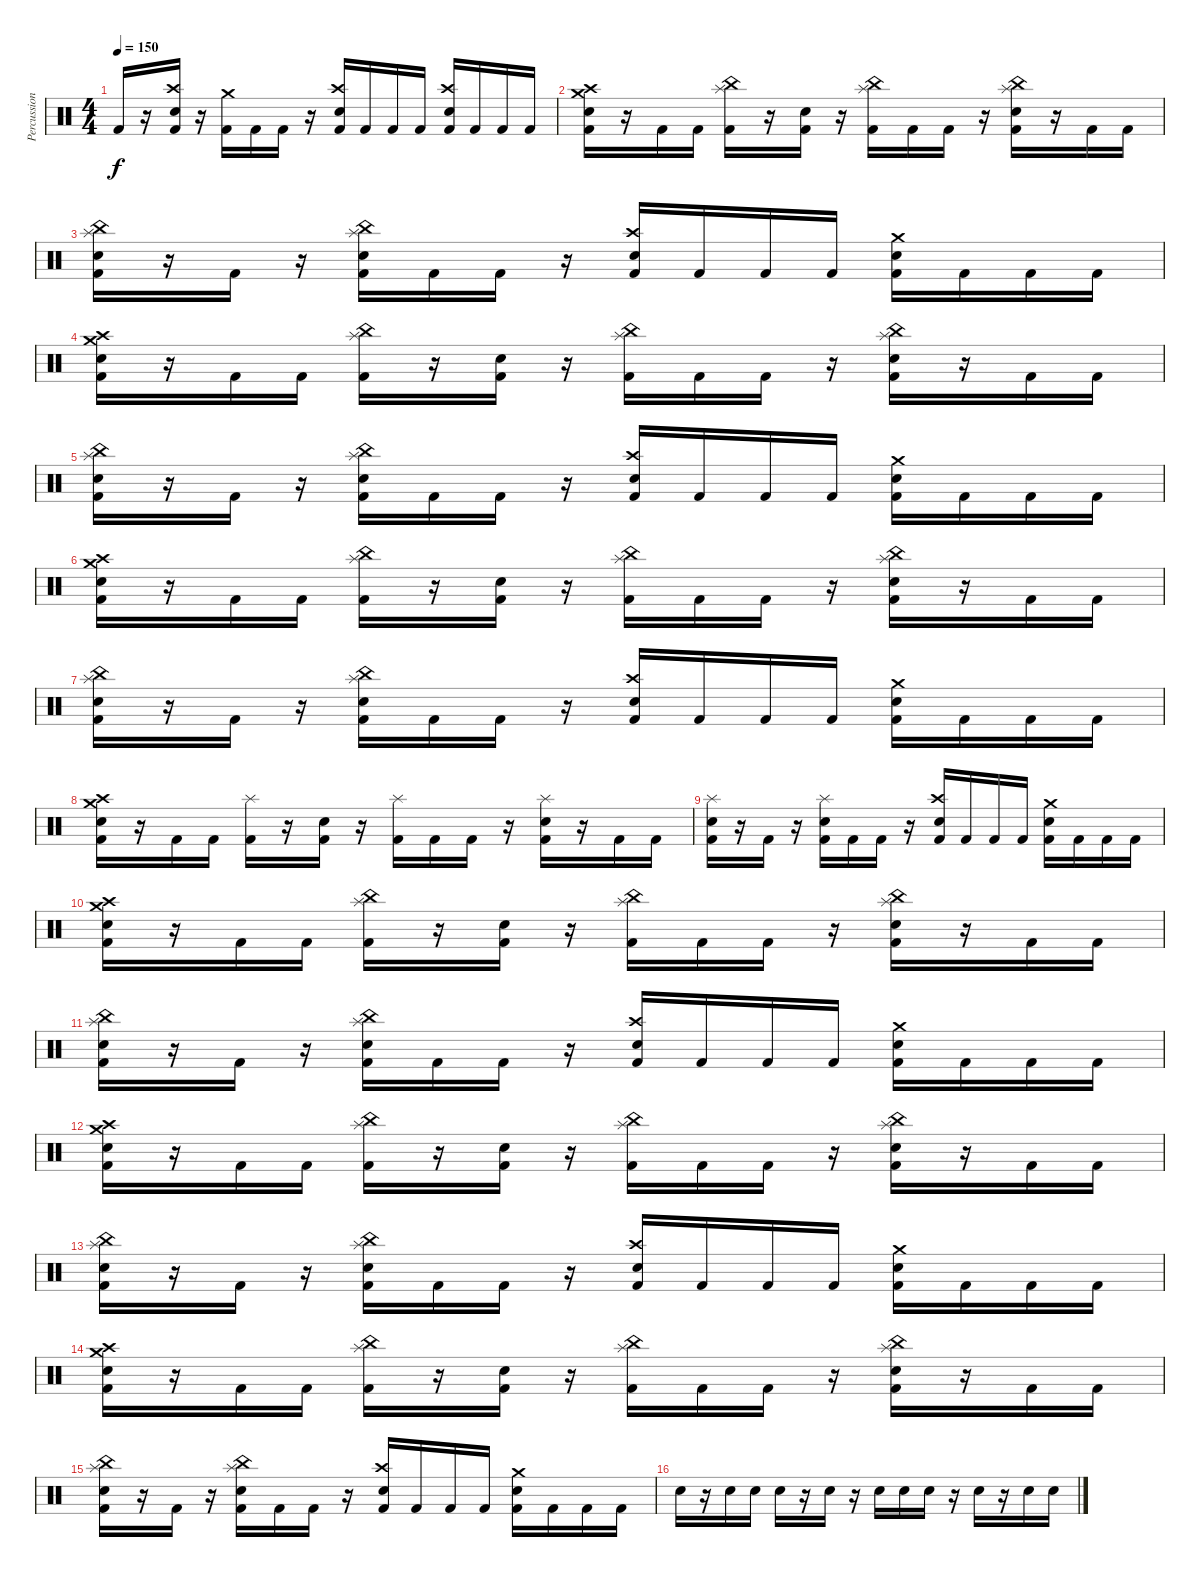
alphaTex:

\track ("Percussion" "Percussion") {instrument percussion}
\staff {score}
\articulation defaults
\ts (4 4)
\tempo 150
\clef neutral
\ks c "Kick (hit) 2".16{dy f}
r.16 ("Crash high (hit)" "Electric Snare (hit)" "Kick (hit) 2").16 r.16 ("Crash medium (hit)" "Kick (hit) 2").16 "Kick (hit) 2".16 "Kick (hit) 2".16 r.16 ("Crash high (hit)" "Electric Snare (hit)" "Kick (hit) 2").16 "Kick (hit) 2".16 "Kick (hit) 2".16 "Kick (hit) 2".16 ("Crash high (hit)" "Electric Snare (hit)" "Kick (hit) 2").16 "Kick (hit) 2".16 "Kick (hit) 2".16 "Kick (hit) 2".16 |
("Crash medium (hit)" "Crash high (hit)" "Electric Snare (hit)" "Kick (hit) 2").16 r.16 "Kick (hit) 2".16 "Kick (hit) 2".16 ("Splash (hit)" "China (hit)" "Kick (hit) 2").16 r.16 ("Electric Snare (hit)" "Kick (hit) 2").16 r.16 ("Splash (hit)" "China (hit)" "Kick (hit) 2").16 "Kick (hit) 2".16 "Kick (hit) 2".16 r.16 ("Splash (hit)" "China (hit)" "Electric Snare (hit)" "Kick (hit) 2").16 r.16 "Kick (hit) 2".16 "Kick (hit) 2".16 |
("Splash (hit)" "China (hit)" "Electric Snare (hit)" "Kick (hit) 2").16 r.16 "Kick (hit) 2".16 r.16 ("Splash (hit)" "China (hit)" "Electric Snare (hit)" "Kick (hit) 2").16 "Kick (hit) 2".16 "Kick (hit) 2".16 r.16 ("Crash high (hit)" "Electric Snare (hit)" "Kick (hit) 2").16 "Kick (hit) 2".16 "Kick (hit) 2".16 "Kick (hit) 2".16 ("Crash medium (hit)" "Electric Snare (hit)" "Kick (hit) 2").16 "Kick (hit) 2".16 "Kick (hit) 2".16 "Kick (hit) 2".16 |
("Crash medium (hit)" "Crash high (hit)" "Electric Snare (hit)" "Kick (hit) 2").16 r.16 "Kick (hit) 2".16 "Kick (hit) 2".16 ("Splash (hit)" "China (hit)" "Kick (hit) 2").16 r.16 ("Electric Snare (hit)" "Kick (hit) 2").16 r.16 ("Splash (hit)" "China (hit)" "Kick (hit) 2").16 "Kick (hit) 2".16 "Kick (hit) 2".16 r.16 ("Splash (hit)" "China (hit)" "Electric Snare (hit)" "Kick (hit) 2").16 r.16 "Kick (hit) 2".16 "Kick (hit) 2".16 |
("Splash (hit)" "China (hit)" "Electric Snare (hit)" "Kick (hit) 2").16 r.16 "Kick (hit) 2".16 r.16 ("Splash (hit)" "China (hit)" "Electric Snare (hit)" "Kick (hit) 2").16 "Kick (hit) 2".16 "Kick (hit) 2".16 r.16 ("Crash high (hit)" "Electric Snare (hit)" "Kick (hit) 2").16 "Kick (hit) 2".16 "Kick (hit) 2".16 "Kick (hit) 2".16 ("Crash medium (hit)" "Electric Snare (hit)" "Kick (hit) 2").16 "Kick (hit) 2".16 "Kick (hit) 2".16 "Kick (hit) 2".16 |
("Crash medium (hit)" "Crash high (hit)" "Electric Snare (hit)" "Kick (hit) 2").16 r.16 "Kick (hit) 2".16 "Kick (hit) 2".16 ("Splash (hit)" "China (hit)" "Kick (hit) 2").16 r.16 ("Electric Snare (hit)" "Kick (hit) 2").16 r.16 ("Splash (hit)" "China (hit)" "Kick (hit) 2").16 "Kick (hit) 2".16 "Kick (hit) 2".16 r.16 ("Splash (hit)" "China (hit)" "Electric Snare (hit)" "Kick (hit) 2").16 r.16 "Kick (hit) 2".16 "Kick (hit) 2".16 |
("Splash (hit)" "China (hit)" "Electric Snare (hit)" "Kick (hit) 2").16 r.16 "Kick (hit) 2".16 r.16 ("Splash (hit)" "China (hit)" "Electric Snare (hit)" "Kick (hit) 2").16 "Kick (hit) 2".16 "Kick (hit) 2".16 r.16 ("Crash high (hit)" "Electric Snare (hit)" "Kick (hit) 2").16 "Kick (hit) 2".16 "Kick (hit) 2".16 "Kick (hit) 2".16 ("Crash medium (hit)" "Electric Snare (hit)" "Kick (hit) 2").16 "Kick (hit) 2".16 "Kick (hit) 2".16 "Kick (hit) 2".16 |
("Crash medium (hit)" "Crash high (hit)" "Electric Snare (hit)" "Kick (hit) 2").16 r.16 "Kick (hit) 2".16 "Kick (hit) 2".16 ("Splash (hit)" "Kick (hit) 2").16 r.16 ("Electric Snare (hit)" "Kick (hit) 2").16 r.16 ("Splash (hit)" "Kick (hit) 2").16 "Kick (hit) 2".16 "Kick (hit) 2".16 r.16 ("Splash (hit)" "Electric Snare (hit)" "Kick (hit) 2").16 r.16 "Kick (hit) 2".16 "Kick (hit) 2".16 |
("Splash (hit)" "Electric Snare (hit)" "Kick (hit) 2").16 r.16 "Kick (hit) 2".16 r.16 ("Splash (hit)" "Electric Snare (hit)" "Kick (hit) 2").16 "Kick (hit) 2".16 "Kick (hit) 2".16 r.16 ("Crash high (hit)" "Electric Snare (hit)" "Kick (hit) 2").16 "Kick (hit) 2".16 "Kick (hit) 2".16 "Kick (hit) 2".16 ("Crash medium (hit)" "Electric Snare (hit)" "Kick (hit) 2").16 "Kick (hit) 2".16 "Kick (hit) 2".16 "Kick (hit) 2".16 |
("Crash medium (hit)" "Crash high (hit)" "Electric Snare (hit)" "Kick (hit) 2").16 r.16 "Kick (hit) 2".16 "Kick (hit) 2".16 ("Splash (hit)" "China (hit)" "Kick (hit) 2").16 r.16 ("Electric Snare (hit)" "Kick (hit) 2").16 r.16 ("Splash (hit)" "China (hit)" "Kick (hit) 2").16 "Kick (hit) 2".16 "Kick (hit) 2".16 r.16 ("Splash (hit)" "China (hit)" "Electric Snare (hit)" "Kick (hit) 2").16 r.16 "Kick (hit) 2".16 "Kick (hit) 2".16 |
("Splash (hit)" "China (hit)" "Electric Snare (hit)" "Kick (hit) 2").16 r.16 "Kick (hit) 2".16 r.16 ("Splash (hit)" "China (hit)" "Electric Snare (hit)" "Kick (hit) 2").16 "Kick (hit) 2".16 "Kick (hit) 2".16 r.16 ("Crash high (hit)" "Electric Snare (hit)" "Kick (hit) 2").16 "Kick (hit) 2".16 "Kick (hit) 2".16 "Kick (hit) 2".16 ("Crash medium (hit)" "Electric Snare (hit)" "Kick (hit) 2").16 "Kick (hit) 2".16 "Kick (hit) 2".16 "Kick (hit) 2".16 |
("Crash medium (hit)" "Crash high (hit)" "Electric Snare (hit)" "Kick (hit) 2").16 r.16 "Kick (hit) 2".16 "Kick (hit) 2".16 ("Splash (hit)" "China (hit)" "Kick (hit) 2").16 r.16 ("Electric Snare (hit)" "Kick (hit) 2").16 r.16 ("Splash (hit)" "China (hit)" "Kick (hit) 2").16 "Kick (hit) 2".16 "Kick (hit) 2".16 r.16 ("Splash (hit)" "China (hit)" "Electric Snare (hit)" "Kick (hit) 2").16 r.16 "Kick (hit) 2".16 "Kick (hit) 2".16 |
("Splash (hit)" "China (hit)" "Electric Snare (hit)" "Kick (hit) 2").16 r.16 "Kick (hit) 2".16 r.16 ("Splash (hit)" "China (hit)" "Electric Snare (hit)" "Kick (hit) 2").16 "Kick (hit) 2".16 "Kick (hit) 2".16 r.16 ("Crash high (hit)" "Electric Snare (hit)" "Kick (hit) 2").16 "Kick (hit) 2".16 "Kick (hit) 2".16 "Kick (hit) 2".16 ("Crash medium (hit)" "Electric Snare (hit)" "Kick (hit) 2").16 "Kick (hit) 2".16 "Kick (hit) 2".16 "Kick (hit) 2".16 |
("Crash medium (hit)" "Crash high (hit)" "Electric Snare (hit)" "Kick (hit) 2").16 r.16 "Kick (hit) 2".16 "Kick (hit) 2".16 ("Splash (hit)" "China (hit)" "Kick (hit) 2").16 r.16 ("Electric Snare (hit)" "Kick (hit) 2").16 r.16 ("Splash (hit)" "China (hit)" "Kick (hit) 2").16 "Kick (hit) 2".16 "Kick (hit) 2".16 r.16 ("Splash (hit)" "China (hit)" "Electric Snare (hit)" "Kick (hit) 2").16 r.16 "Kick (hit) 2".16 "Kick (hit) 2".16 |
("Splash (hit)" "China (hit)" "Electric Snare (hit)" "Kick (hit) 2").16 r.16 "Kick (hit) 2".16 r.16 ("Splash (hit)" "China (hit)" "Electric Snare (hit)" "Kick (hit) 2").16 "Kick (hit) 2".16 "Kick (hit) 2".16 r.16 ("Crash high (hit)" "Electric Snare (hit)" "Kick (hit) 2").16 "Kick (hit) 2".16 "Kick (hit) 2".16 "Kick (hit) 2".16 ("Crash medium (hit)" "Electric Snare (hit)" "Kick (hit) 2").16 "Kick (hit) 2".16 "Kick (hit) 2".16 "Kick (hit) 2".16 |
"Electric Snare (hit)".16 r.16 "Electric Snare (hit)".16 "Electric Snare (hit)".16 "Electric Snare (hit)".16 r.16 "Electric Snare (hit)".16 r.16 "Electric Snare (hit)".16 "Electric Snare (hit)".16 "Electric Snare (hit)".16 r.16 "Electric Snare (hit)".16 r.16 "Electric Snare (hit)".16 "Electric Snare (hit)".16
